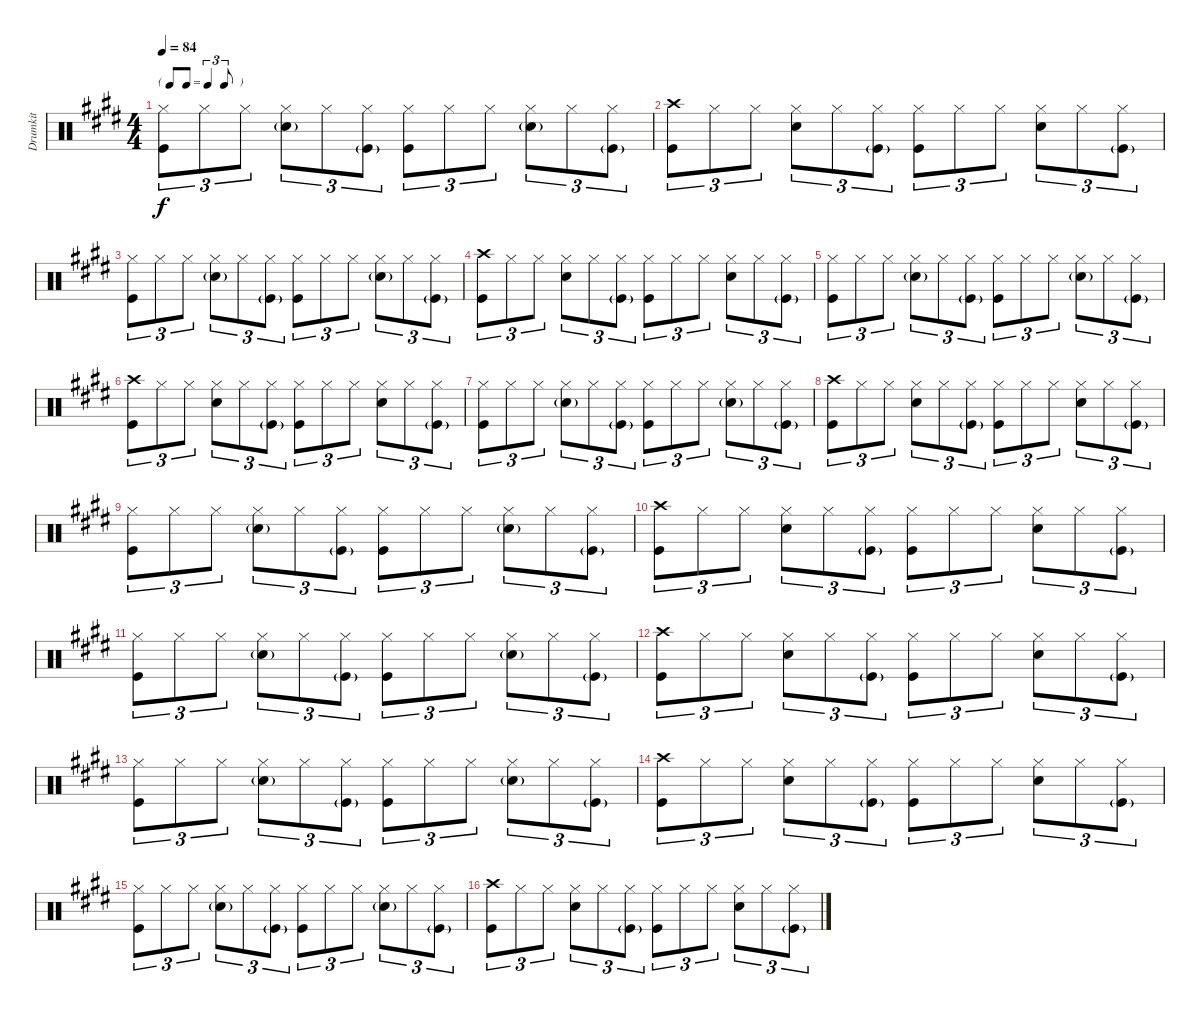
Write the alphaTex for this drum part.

\track ("Drumkit" "Drumkit") {instrument percussion}
\staff {score}
\articulation defaults
\ts (4 4)
\tf triplet8th
\tempo 84
\clef neutral
\ks e
("Kick (hit)" "Hi-Hat (closed)").8{tu (3 2) dy f} "Hi-Hat (closed)".8{tu (3 2)} "Hi-Hat (closed)".8{tu (3 2)} ("Hi-Hat (closed)" "Snare (hit) 2"{g}).8{tu (3 2)} "Hi-Hat (closed)".8{tu (3 2)} ("Hi-Hat (closed)" "Kick (hit)"{g}).8{tu (3 2)} ("Kick (hit)" "Hi-Hat (closed)").8{tu (3 2)} "Hi-Hat (closed)".8{tu (3 2)} "Hi-Hat (closed)".8{tu (3 2)} ("Snare (hit) 2"{g} "Hi-Hat (closed)").8{tu (3 2)} "Hi-Hat (closed)".8{tu (3 2)} ("Hi-Hat (closed)" "Kick (hit)"{g}).8{tu (3 2)} |
("Kick (hit)" "Crash high (hit)").8{tu (3 2)} "Hi-Hat (closed)".8{tu (3 2)} "Hi-Hat (closed)".8{tu (3 2)} ("Hi-Hat (closed)" "Snare (hit) 2").8{tu (3 2)} "Hi-Hat (closed)".8{tu (3 2)} ("Hi-Hat (closed)" "Kick (hit)"{g}).8{tu (3 2)} ("Kick (hit)" "Hi-Hat (closed)").8{tu (3 2)} "Hi-Hat (closed)".8{tu (3 2)} "Hi-Hat (closed)".8{tu (3 2)} ("Snare (hit) 2" "Hi-Hat (closed)").8{tu (3 2)} "Hi-Hat (closed)".8{tu (3 2)} ("Hi-Hat (closed)" "Kick (hit)"{g}).8{tu (3 2)} |
("Kick (hit)" "Hi-Hat (closed)").8{tu (3 2)} "Hi-Hat (closed)".8{tu (3 2)} "Hi-Hat (closed)".8{tu (3 2)} ("Hi-Hat (closed)" "Snare (hit) 2"{g}).8{tu (3 2)} "Hi-Hat (closed)".8{tu (3 2)} ("Hi-Hat (closed)" "Kick (hit)"{g}).8{tu (3 2)} ("Kick (hit)" "Hi-Hat (closed)").8{tu (3 2)} "Hi-Hat (closed)".8{tu (3 2)} "Hi-Hat (closed)".8{tu (3 2)} ("Snare (hit) 2"{g} "Hi-Hat (closed)").8{tu (3 2)} "Hi-Hat (closed)".8{tu (3 2)} ("Hi-Hat (closed)" "Kick (hit)"{g}).8{tu (3 2)} |
("Kick (hit)" "Crash high (hit)").8{tu (3 2)} "Hi-Hat (closed)".8{tu (3 2)} "Hi-Hat (closed)".8{tu (3 2)} ("Hi-Hat (closed)" "Snare (hit) 2").8{tu (3 2)} "Hi-Hat (closed)".8{tu (3 2)} ("Hi-Hat (closed)" "Kick (hit)"{g}).8{tu (3 2)} ("Kick (hit)" "Hi-Hat (closed)").8{tu (3 2)} "Hi-Hat (closed)".8{tu (3 2)} "Hi-Hat (closed)".8{tu (3 2)} ("Snare (hit) 2" "Hi-Hat (closed)").8{tu (3 2)} "Hi-Hat (closed)".8{tu (3 2)} ("Hi-Hat (closed)" "Kick (hit)"{g}).8{tu (3 2)} |
("Kick (hit)" "Hi-Hat (closed)").8{tu (3 2)} "Hi-Hat (closed)".8{tu (3 2)} "Hi-Hat (closed)".8{tu (3 2)} ("Hi-Hat (closed)" "Snare (hit) 2"{g}).8{tu (3 2)} "Hi-Hat (closed)".8{tu (3 2)} ("Hi-Hat (closed)" "Kick (hit)"{g}).8{tu (3 2)} ("Kick (hit)" "Hi-Hat (closed)").8{tu (3 2)} "Hi-Hat (closed)".8{tu (3 2)} "Hi-Hat (closed)".8{tu (3 2)} ("Snare (hit) 2"{g} "Hi-Hat (closed)").8{tu (3 2)} "Hi-Hat (closed)".8{tu (3 2)} ("Hi-Hat (closed)" "Kick (hit)"{g}).8{tu (3 2)} |
("Kick (hit)" "Crash high (hit)").8{tu (3 2)} "Hi-Hat (closed)".8{tu (3 2)} "Hi-Hat (closed)".8{tu (3 2)} ("Hi-Hat (closed)" "Snare (hit) 2").8{tu (3 2)} "Hi-Hat (closed)".8{tu (3 2)} ("Hi-Hat (closed)" "Kick (hit)"{g}).8{tu (3 2)} ("Kick (hit)" "Hi-Hat (closed)").8{tu (3 2)} "Hi-Hat (closed)".8{tu (3 2)} "Hi-Hat (closed)".8{tu (3 2)} ("Snare (hit) 2" "Hi-Hat (closed)").8{tu (3 2)} "Hi-Hat (closed)".8{tu (3 2)} ("Hi-Hat (closed)" "Kick (hit)"{g}).8{tu (3 2)} |
("Kick (hit)" "Hi-Hat (closed)").8{tu (3 2)} "Hi-Hat (closed)".8{tu (3 2)} "Hi-Hat (closed)".8{tu (3 2)} ("Hi-Hat (closed)" "Snare (hit) 2"{g}).8{tu (3 2)} "Hi-Hat (closed)".8{tu (3 2)} ("Hi-Hat (closed)" "Kick (hit)"{g}).8{tu (3 2)} ("Kick (hit)" "Hi-Hat (closed)").8{tu (3 2)} "Hi-Hat (closed)".8{tu (3 2)} "Hi-Hat (closed)".8{tu (3 2)} ("Snare (hit) 2"{g} "Hi-Hat (closed)").8{tu (3 2)} "Hi-Hat (closed)".8{tu (3 2)} ("Hi-Hat (closed)" "Kick (hit)"{g}).8{tu (3 2)} |
("Kick (hit)" "Crash high (hit)").8{tu (3 2)} "Hi-Hat (closed)".8{tu (3 2)} "Hi-Hat (closed)".8{tu (3 2)} ("Hi-Hat (closed)" "Snare (hit) 2").8{tu (3 2)} "Hi-Hat (closed)".8{tu (3 2)} ("Hi-Hat (closed)" "Kick (hit)"{g}).8{tu (3 2)} ("Kick (hit)" "Hi-Hat (closed)").8{tu (3 2)} "Hi-Hat (closed)".8{tu (3 2)} "Hi-Hat (closed)".8{tu (3 2)} ("Snare (hit) 2" "Hi-Hat (closed)").8{tu (3 2)} "Hi-Hat (closed)".8{tu (3 2)} ("Hi-Hat (closed)" "Kick (hit)"{g}).8{tu (3 2)} |
("Kick (hit)" "Hi-Hat (closed)").8{tu (3 2)} "Hi-Hat (closed)".8{tu (3 2)} "Hi-Hat (closed)".8{tu (3 2)} ("Hi-Hat (closed)" "Snare (hit) 2"{g}).8{tu (3 2)} "Hi-Hat (closed)".8{tu (3 2)} ("Hi-Hat (closed)" "Kick (hit)"{g}).8{tu (3 2)} ("Kick (hit)" "Hi-Hat (closed)").8{tu (3 2)} "Hi-Hat (closed)".8{tu (3 2)} "Hi-Hat (closed)".8{tu (3 2)} ("Snare (hit) 2"{g} "Hi-Hat (closed)").8{tu (3 2)} "Hi-Hat (closed)".8{tu (3 2)} ("Hi-Hat (closed)" "Kick (hit)"{g}).8{tu (3 2)} |
("Kick (hit)" "Crash high (hit)").8{tu (3 2)} "Hi-Hat (closed)".8{tu (3 2)} "Hi-Hat (closed)".8{tu (3 2)} ("Hi-Hat (closed)" "Snare (hit) 2").8{tu (3 2)} "Hi-Hat (closed)".8{tu (3 2)} ("Hi-Hat (closed)" "Kick (hit)"{g}).8{tu (3 2)} ("Kick (hit)" "Hi-Hat (closed)").8{tu (3 2)} "Hi-Hat (closed)".8{tu (3 2)} "Hi-Hat (closed)".8{tu (3 2)} ("Snare (hit) 2" "Hi-Hat (closed)").8{tu (3 2)} "Hi-Hat (closed)".8{tu (3 2)} ("Hi-Hat (closed)" "Kick (hit)"{g}).8{tu (3 2)} |
("Kick (hit)" "Hi-Hat (closed)").8{tu (3 2)} "Hi-Hat (closed)".8{tu (3 2)} "Hi-Hat (closed)".8{tu (3 2)} ("Hi-Hat (closed)" "Snare (hit) 2"{g}).8{tu (3 2)} "Hi-Hat (closed)".8{tu (3 2)} ("Hi-Hat (closed)" "Kick (hit)"{g}).8{tu (3 2)} ("Kick (hit)" "Hi-Hat (closed)").8{tu (3 2)} "Hi-Hat (closed)".8{tu (3 2)} "Hi-Hat (closed)".8{tu (3 2)} ("Snare (hit) 2"{g} "Hi-Hat (closed)").8{tu (3 2)} "Hi-Hat (closed)".8{tu (3 2)} ("Hi-Hat (closed)" "Kick (hit)"{g}).8{tu (3 2)} |
("Kick (hit)" "Crash high (hit)").8{tu (3 2)} "Hi-Hat (closed)".8{tu (3 2)} "Hi-Hat (closed)".8{tu (3 2)} ("Hi-Hat (closed)" "Snare (hit) 2").8{tu (3 2)} "Hi-Hat (closed)".8{tu (3 2)} ("Hi-Hat (closed)" "Kick (hit)"{g}).8{tu (3 2)} ("Kick (hit)" "Hi-Hat (closed)").8{tu (3 2)} "Hi-Hat (closed)".8{tu (3 2)} "Hi-Hat (closed)".8{tu (3 2)} ("Snare (hit) 2" "Hi-Hat (closed)").8{tu (3 2)} "Hi-Hat (closed)".8{tu (3 2)} ("Hi-Hat (closed)" "Kick (hit)"{g}).8{tu (3 2)} |
("Kick (hit)" "Hi-Hat (closed)").8{tu (3 2)} "Hi-Hat (closed)".8{tu (3 2)} "Hi-Hat (closed)".8{tu (3 2)} ("Hi-Hat (closed)" "Snare (hit) 2"{g}).8{tu (3 2)} "Hi-Hat (closed)".8{tu (3 2)} ("Hi-Hat (closed)" "Kick (hit)"{g}).8{tu (3 2)} ("Kick (hit)" "Hi-Hat (closed)").8{tu (3 2)} "Hi-Hat (closed)".8{tu (3 2)} "Hi-Hat (closed)".8{tu (3 2)} ("Snare (hit) 2"{g} "Hi-Hat (closed)").8{tu (3 2)} "Hi-Hat (closed)".8{tu (3 2)} ("Hi-Hat (closed)" "Kick (hit)"{g}).8{tu (3 2)} |
("Kick (hit)" "Crash high (hit)").8{tu (3 2)} "Hi-Hat (closed)".8{tu (3 2)} "Hi-Hat (closed)".8{tu (3 2)} ("Hi-Hat (closed)" "Snare (hit) 2").8{tu (3 2)} "Hi-Hat (closed)".8{tu (3 2)} ("Hi-Hat (closed)" "Kick (hit)"{g}).8{tu (3 2)} ("Kick (hit)" "Hi-Hat (closed)").8{tu (3 2)} "Hi-Hat (closed)".8{tu (3 2)} "Hi-Hat (closed)".8{tu (3 2)} ("Snare (hit) 2" "Hi-Hat (closed)").8{tu (3 2)} "Hi-Hat (closed)".8{tu (3 2)} ("Hi-Hat (closed)" "Kick (hit)"{g}).8{tu (3 2)} |
("Kick (hit)" "Hi-Hat (closed)").8{tu (3 2)} "Hi-Hat (closed)".8{tu (3 2)} "Hi-Hat (closed)".8{tu (3 2)} ("Hi-Hat (closed)" "Snare (hit) 2"{g}).8{tu (3 2)} "Hi-Hat (closed)".8{tu (3 2)} ("Hi-Hat (closed)" "Kick (hit)"{g}).8{tu (3 2)} ("Kick (hit)" "Hi-Hat (closed)").8{tu (3 2)} "Hi-Hat (closed)".8{tu (3 2)} "Hi-Hat (closed)".8{tu (3 2)} ("Snare (hit) 2"{g} "Hi-Hat (closed)").8{tu (3 2)} "Hi-Hat (closed)".8{tu (3 2)} ("Hi-Hat (closed)" "Kick (hit)"{g}).8{tu (3 2)} |
("Kick (hit)" "Crash high (hit)").8{tu (3 2)} "Hi-Hat (closed)".8{tu (3 2)} "Hi-Hat (closed)".8{tu (3 2)} ("Hi-Hat (closed)" "Snare (hit) 2").8{tu (3 2)} "Hi-Hat (closed)".8{tu (3 2)} ("Hi-Hat (closed)" "Kick (hit)"{g}).8{tu (3 2)} ("Kick (hit)" "Hi-Hat (closed)").8{tu (3 2)} "Hi-Hat (closed)".8{tu (3 2)} "Hi-Hat (closed)".8{tu (3 2)} ("Snare (hit) 2" "Hi-Hat (closed)").8{tu (3 2)} "Hi-Hat (closed)".8{tu (3 2)} ("Hi-Hat (closed)" "Kick (hit)"{g}).8{tu (3 2)}
